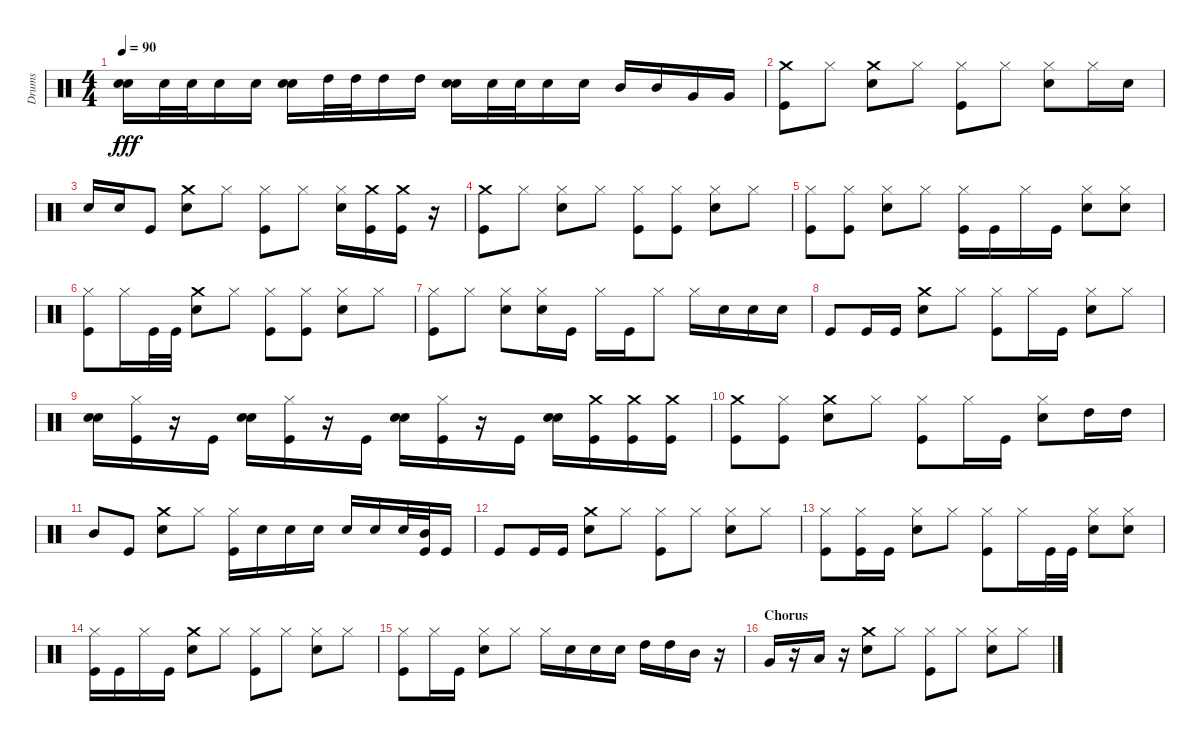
\track ("Drums" "Drums") {instrument percussion}
\staff {score}
\articulation defaults
\ts (4 4)
\tempo 90
\clef neutral
\ks c
("Snare (hit) 2" "Snare (hit) 2").16{dy fff} "Snare (hit) 2".32 "Snare (hit) 2".32 "Snare (hit) 2".16 "Snare (hit) 2".16 ("Snare (hit) 2" "Snare (hit) 2").16 "High Tom (hit)".32 "High Tom (hit)".32 "High Tom (hit)".16 "High Tom (hit)".16 ("Snare (hit) 2" "Snare (hit) 2").16 "Snare (hit) 2".32 "Snare (hit) 2".32 "Snare (hit) 2".16 "Snare (hit) 2".16 "Mid Tom (hit)".16 "Mid Tom (hit)".16 "Very Low Tom (hit)".16 "Very Low Tom (hit)".16 |
("Crash medium (hit)" "Kick (hit)").8 "Hi-Hat (closed)".8 ("Crash medium (hit)" "Snare (hit) 2").8 "Hi-Hat (closed)".8 ("Kick (hit)" "Hi-Hat (closed)").8 "Hi-Hat (closed)".8 ("Snare (hit) 2" "Hi-Hat (closed)").8 "Hi-Hat (closed)".16 "Snare (hit) 2".16 |
"Snare (hit) 2".16 "Snare (hit) 2".16 "Kick (hit)".8 ("Snare (hit) 2" "Crash medium (hit)").8 "Hi-Hat (closed)".8 ("Hi-Hat (closed)" "Kick (hit)").8 "Hi-Hat (closed)".8 ("Hi-Hat (closed)" "Snare (hit) 2").16 ("Crash medium (hit)" "Kick (hit)").16 ("Crash medium (hit)" "Kick (hit)").16 r.16 |
("Crash medium (hit)" "Kick (hit)").8 "Hi-Hat (closed)".8 ("Hi-Hat (closed)" "Snare (hit) 2").8 "Hi-Hat (closed)".8 ("Hi-Hat (closed)" "Kick (hit)").8 ("Kick (hit)" "Hi-Hat (closed)").8 ("Hi-Hat (closed)" "Snare (hit) 2").8 "Hi-Hat (closed)".8 |
("Hi-Hat (closed)" "Kick (hit)").8 ("Kick (hit)" "Hi-Hat (closed)").8 ("Snare (hit) 2" "Hi-Hat (closed)").8 "Hi-Hat (closed)".8 ("Kick (hit)" "Hi-Hat (closed)").16 "Kick (hit)".16 "Hi-Hat (closed)".16 "Kick (hit)".16 ("Hi-Hat (closed)" "Snare (hit) 2").8 ("Snare (hit) 2" "Hi-Hat (closed)").8 |
("Hi-Hat (closed)" "Kick (hit)").8 "Hi-Hat (closed)".16 "Kick (hit)".32 "Kick (hit)".32 ("Crash medium (hit)" "Snare (hit) 2").8 "Hi-Hat (closed)".8 ("Hi-Hat (closed)" "Kick (hit)").8 ("Hi-Hat (closed)" "Kick (hit)").8 ("Hi-Hat (closed)" "Snare (hit) 2").8 "Hi-Hat (closed)".8 |
("Hi-Hat (closed)" "Kick (hit)").8 "Hi-Hat (closed)".8 ("Snare (hit) 2" "Hi-Hat (closed)").8 ("Snare (hit) 2" "Hi-Hat (closed)").16 "Kick (hit)".16 "Hi-Hat (closed)".16 "Kick (hit)".16 "Hi-Hat (closed)".8 "Hi-Hat (closed)".16 "Snare (hit) 2".16 "Snare (hit) 2".16 "Snare (hit) 2".16 |
"Kick (hit)".8 "Kick (hit)".16 "Kick (hit)".16 ("Crash medium (hit)" "Snare (hit) 2").8 "Hi-Hat (closed)".8 ("Kick (hit)" "Hi-Hat (closed)").8 "Hi-Hat (closed)".16 "Kick (hit)".16 ("Snare (hit) 2" "Hi-Hat (closed)").8 "Hi-Hat (closed)".8 |
("Snare (hit) 2" "Snare (hit) 2").16 ("Hi-Hat (closed)" "Kick (hit)").16 r.16 "Kick (hit)".16 ("Snare (hit) 2" "Snare (hit) 2").16 ("Hi-Hat (closed)" "Kick (hit)").16 r.16 "Kick (hit)".16 ("Snare (hit) 2" "Snare (hit) 2").16 ("Hi-Hat (closed)" "Kick (hit)").16 r.16 "Kick (hit)".16 ("Snare (hit) 2" "Snare (hit) 2").16 ("Crash medium (hit)" "Kick (hit)").16 ("Crash medium (hit)" "Kick (hit)").16 ("Crash medium (hit)" "Kick (hit)").16 |
("Crash medium (hit)" "Kick (hit)").8 ("Hi-Hat (closed)" "Kick (hit)").8 ("Crash medium (hit)" "Snare (hit) 2").8 "Hi-Hat (closed)".8 ("Kick (hit)" "Hi-Hat (closed)").8 "Hi-Hat (closed)".16 "Kick (hit)".16 ("Hi-Hat (closed)" "Snare (hit) 2").8 "High Tom (hit)".16 "High Tom (hit)".16 |
"Mid Tom (hit)".8 "Kick (hit)".8 ("Crash medium (hit)" "Snare (hit) 2").8 "Hi-Hat (closed)".8 ("Hi-Hat (closed)" "Kick (hit)").16 "Snare (hit) 2".16 "Snare (hit) 2".16 "Snare (hit) 2".16 "Snare (hit) 2".16 "Snare (hit) 2".16 "Snare (hit) 2".32 ("Mid Tom (hit)" "Kick (hit)").32 "Kick (hit)".16 |
"Kick (hit)".8 "Kick (hit)".16 "Kick (hit)".16 ("Crash medium (hit)" "Snare (hit) 2").8 "Hi-Hat (closed)".8 ("Hi-Hat (closed)" "Kick (hit)").8 "Hi-Hat (closed)".8 ("Snare (hit) 2" "Hi-Hat (closed)").8 "Hi-Hat (closed)".8 |
("Kick (hit)" "Hi-Hat (closed)").8 ("Kick (hit)" "Hi-Hat (closed)").16 "Kick (hit)".16 ("Snare (hit) 2" "Hi-Hat (closed)").8 "Hi-Hat (closed)".8 ("Kick (hit)" "Hi-Hat (closed)").8 "Hi-Hat (closed)".16 "Kick (hit)".32 "Kick (hit)".32 ("Snare (hit) 2" "Hi-Hat (closed)").8 ("Snare (hit) 2" "Hi-Hat (closed)").8 |
("Kick (hit)" "Hi-Hat (closed)").16 "Kick (hit)".16 "Hi-Hat (closed)".16 "Kick (hit)".16 ("Crash medium (hit)" "Snare (hit) 2").8 "Hi-Hat (closed)".8 ("Hi-Hat (closed)" "Kick (hit)").8 "Hi-Hat (closed)".8 ("Snare (hit) 2" "Hi-Hat (closed)").8 "Hi-Hat (closed)".8 |
("Kick (hit)" "Hi-Hat (closed)").8 "Hi-Hat (closed)".16 "Kick (hit)".16 ("Hi-Hat (closed)" "Snare (hit) 2").8 "Hi-Hat (closed)".8 "Hi-Hat (closed)".16 "Snare (hit) 2".16 "Snare (hit) 2".16 "Snare (hit) 2".16 "High Tom (hit)".16 "High Tom (hit)".16 "Mid Tom (hit)".16 r.16 |
\section ("" "Chorus")
"Very Low Tom (hit)".16 r.16 "Low Floor Tom (hit)".16 r.16 ("Crash medium (hit)" "Snare (hit) 2").8 "Hi-Hat (closed)".8 ("Kick (hit)" "Hi-Hat (closed)").8 "Hi-Hat (closed)".8 ("Snare (hit) 2" "Hi-Hat (closed)").8 "Hi-Hat (closed)".8
